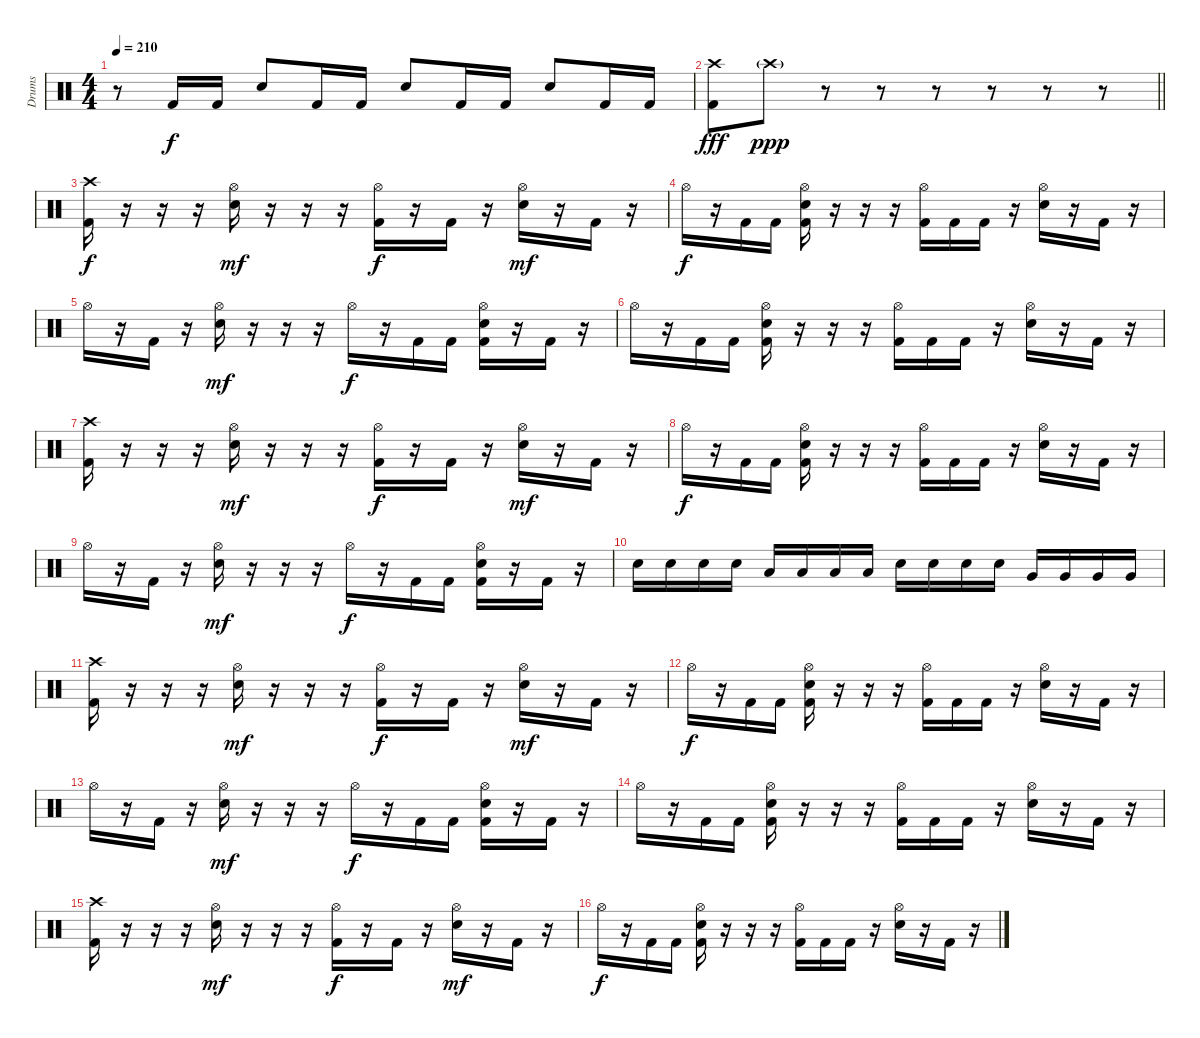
\track ("Drums" "Drums") {instrument percussion}
\staff {score}
\articulation defaults
\ts (4 4)
\tempo 210
\clef neutral
\ks c
r.8{dy f} "Kick (hit) 2".16 "Kick (hit) 2".16 "Snare (hit) 2".8 "Kick (hit) 2".16 "Kick (hit) 2".16 "Snare (hit) 2".8 "Kick (hit) 2".16 "Kick (hit) 2".16 "Snare (hit) 2".8 "Kick (hit) 2".16 "Kick (hit) 2".16 |
\barLineRight lightlight
("Crash high (hit)" "Kick (hit) 2").8{dy fff} "Crash high (hit)"{g}.8{dy ppp} r.8 r.8 r.8 r.8 r.8 r.8 |
("Crash high (hit)" "Kick (hit) 2").16{dy f} r.16 r.16 r.16 ("Hi-Hat (open)" "Snare (hit) 2").16{dy mf} r.16 r.16 r.16 ("Hi-Hat (open)" "Kick (hit) 2").16{dy f} r.16 "Kick (hit) 2".16 r.16 ("Hi-Hat (open)" "Snare (hit) 2").16{dy mf} r.16 "Kick (hit) 2".16 r.16 |
"Hi-Hat (open)".16{dy f} r.16 "Kick (hit) 2".16 "Kick (hit) 2".16 ("Hi-Hat (open)" "Snare (hit) 2" "Kick (hit) 2").16 r.16 r.16 r.16 ("Hi-Hat (open)" "Kick (hit) 2").16 "Kick (hit) 2".16 "Kick (hit) 2".16 r.16 ("Hi-Hat (open)" "Snare (hit) 2").16 r.16 "Kick (hit) 2".16 r.16 |
"Hi-Hat (open)".16 r.16 "Kick (hit) 2".16 r.16 ("Hi-Hat (open)" "Snare (hit) 2").16{dy mf} r.16 r.16 r.16 "Hi-Hat (open)".16{dy f} r.16 "Kick (hit) 2".16 "Kick (hit) 2".16 ("Hi-Hat (open)" "Snare (hit) 2" "Kick (hit) 2").16 r.16 "Kick (hit) 2".16 r.16 |
"Hi-Hat (open)".16 r.16 "Kick (hit) 2".16 "Kick (hit) 2".16 ("Hi-Hat (open)" "Snare (hit) 2" "Kick (hit) 2").16 r.16 r.16 r.16 ("Hi-Hat (open)" "Kick (hit) 2").16 "Kick (hit) 2".16 "Kick (hit) 2".16 r.16 ("Hi-Hat (open)" "Snare (hit) 2").16 r.16 "Kick (hit) 2".16 r.16 |
("Crash high (hit)" "Kick (hit) 2").16 r.16 r.16 r.16 ("Hi-Hat (open)" "Snare (hit) 2").16{dy mf} r.16 r.16 r.16 ("Hi-Hat (open)" "Kick (hit) 2").16{dy f} r.16 "Kick (hit) 2".16 r.16 ("Hi-Hat (open)" "Snare (hit) 2").16{dy mf} r.16 "Kick (hit) 2".16 r.16 |
"Hi-Hat (open)".16{dy f} r.16 "Kick (hit) 2".16 "Kick (hit) 2".16 ("Hi-Hat (open)" "Snare (hit) 2" "Kick (hit) 2").16 r.16 r.16 r.16 ("Hi-Hat (open)" "Kick (hit) 2").16 "Kick (hit) 2".16 "Kick (hit) 2".16 r.16 ("Hi-Hat (open)" "Snare (hit) 2").16 r.16 "Kick (hit) 2".16 r.16 |
"Hi-Hat (open)".16 r.16 "Kick (hit) 2".16 r.16 ("Hi-Hat (open)" "Snare (hit) 2").16{dy mf} r.16 r.16 r.16 "Hi-Hat (open)".16{dy f} r.16 "Kick (hit) 2".16 "Kick (hit) 2".16 ("Hi-Hat (open)" "Snare (hit) 2" "Kick (hit) 2").16 r.16 "Kick (hit) 2".16 r.16 |
"Snare (hit) 2".16 "Snare (hit) 2".16 "Snare (hit) 2".16 "Snare (hit) 2".16 "Low Tom (hit)".16 "Low Tom (hit)".16 "Low Tom (hit)".16 "Low Tom (hit)".16 "Snare (hit) 2".16 "Snare (hit) 2".16 "Snare (hit) 2".16 "Snare (hit) 2".16 "Very Low Tom (hit)".16 "Very Low Tom (hit)".16 "Very Low Tom (hit)".16 "Very Low Tom (hit)".16 |
("Crash high (hit)" "Kick (hit) 2").16 r.16 r.16 r.16 ("Hi-Hat (open)" "Snare (hit) 2").16{dy mf} r.16 r.16 r.16 ("Hi-Hat (open)" "Kick (hit) 2").16{dy f} r.16 "Kick (hit) 2".16 r.16 ("Hi-Hat (open)" "Snare (hit) 2").16{dy mf} r.16 "Kick (hit) 2".16 r.16 |
"Hi-Hat (open)".16{dy f} r.16 "Kick (hit) 2".16 "Kick (hit) 2".16 ("Hi-Hat (open)" "Snare (hit) 2" "Kick (hit) 2").16 r.16 r.16 r.16 ("Hi-Hat (open)" "Kick (hit) 2").16 "Kick (hit) 2".16 "Kick (hit) 2".16 r.16 ("Hi-Hat (open)" "Snare (hit) 2").16 r.16 "Kick (hit) 2".16 r.16 |
"Hi-Hat (open)".16 r.16 "Kick (hit) 2".16 r.16 ("Hi-Hat (open)" "Snare (hit) 2").16{dy mf} r.16 r.16 r.16 "Hi-Hat (open)".16{dy f} r.16 "Kick (hit) 2".16 "Kick (hit) 2".16 ("Hi-Hat (open)" "Snare (hit) 2" "Kick (hit) 2").16 r.16 "Kick (hit) 2".16 r.16 |
"Hi-Hat (open)".16 r.16 "Kick (hit) 2".16 "Kick (hit) 2".16 ("Hi-Hat (open)" "Snare (hit) 2" "Kick (hit) 2").16 r.16 r.16 r.16 ("Hi-Hat (open)" "Kick (hit) 2").16 "Kick (hit) 2".16 "Kick (hit) 2".16 r.16 ("Hi-Hat (open)" "Snare (hit) 2").16 r.16 "Kick (hit) 2".16 r.16 |
("Crash high (hit)" "Kick (hit) 2").16 r.16 r.16 r.16 ("Hi-Hat (open)" "Snare (hit) 2").16{dy mf} r.16 r.16 r.16 ("Hi-Hat (open)" "Kick (hit) 2").16{dy f} r.16 "Kick (hit) 2".16 r.16 ("Hi-Hat (open)" "Snare (hit) 2").16{dy mf} r.16 "Kick (hit) 2".16 r.16 |
"Hi-Hat (open)".16{dy f} r.16 "Kick (hit) 2".16 "Kick (hit) 2".16 ("Hi-Hat (open)" "Snare (hit) 2" "Kick (hit) 2").16 r.16 r.16 r.16 ("Hi-Hat (open)" "Kick (hit) 2").16 "Kick (hit) 2".16 "Kick (hit) 2".16 r.16 ("Hi-Hat (open)" "Snare (hit) 2").16 r.16 "Kick (hit) 2".16 r.16
